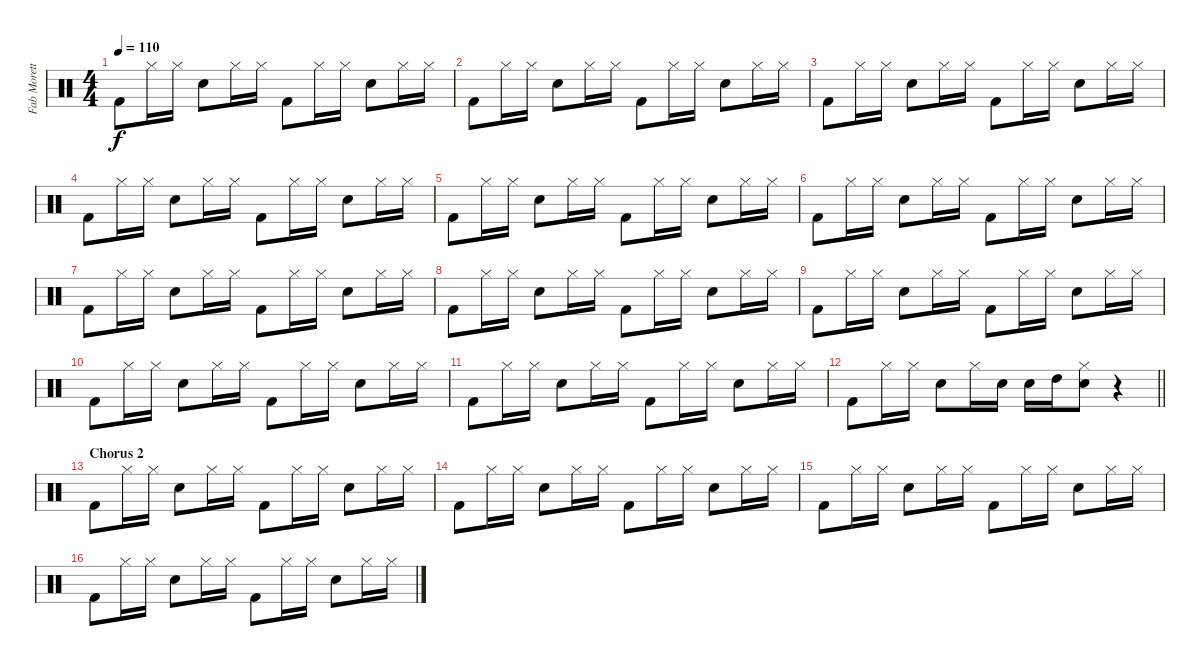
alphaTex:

\track ("Fab Moretti" "Fab Morett") {instrument percussion}
\staff {score}
\articulation defaults
\ts (4 4)
\tempo 110
\clef neutral
\ks c "Kick (hit) 2".8{dy f} "Hi-Hat (closed)".16 "Hi-Hat (closed)".16 "Electric Snare (hit)".8 "Hi-Hat (closed)".16 "Hi-Hat (closed)".16 "Kick (hit) 2".8 "Hi-Hat (closed)".16 "Hi-Hat (closed)".16 "Electric Snare (hit)".8 "Hi-Hat (closed)".16 "Hi-Hat (closed)".16
|
"Kick (hit) 2".8 "Hi-Hat (closed)".16 "Hi-Hat (closed)".16 "Electric Snare (hit)".8 "Hi-Hat (closed)".16 "Hi-Hat (closed)".16 "Kick (hit) 2".8 "Hi-Hat (closed)".16 "Hi-Hat (closed)".16 "Electric Snare (hit)".8 "Hi-Hat (closed)".16 "Hi-Hat (closed)".16 |
"Kick (hit) 2".8 "Hi-Hat (closed)".16 "Hi-Hat (closed)".16 "Electric Snare (hit)".8 "Hi-Hat (closed)".16 "Hi-Hat (closed)".16 "Kick (hit) 2".8 "Hi-Hat (closed)".16 "Hi-Hat (closed)".16 "Electric Snare (hit)".8 "Hi-Hat (closed)".16 "Hi-Hat (closed)".16 |
"Kick (hit) 2".8 "Hi-Hat (closed)".16 "Hi-Hat (closed)".16 "Electric Snare (hit)".8 "Hi-Hat (closed)".16 "Hi-Hat (closed)".16 "Kick (hit) 2".8 "Hi-Hat (closed)".16 "Hi-Hat (closed)".16 "Electric Snare (hit)".8 "Hi-Hat (closed)".16 "Hi-Hat (closed)".16 |
"Kick (hit) 2".8 "Hi-Hat (closed)".16 "Hi-Hat (closed)".16 "Electric Snare (hit)".8 "Hi-Hat (closed)".16 "Hi-Hat (closed)".16 "Kick (hit) 2".8 "Hi-Hat (closed)".16 "Hi-Hat (closed)".16 "Electric Snare (hit)".8 "Hi-Hat (closed)".16 "Hi-Hat (closed)".16 |
"Kick (hit) 2".8 "Hi-Hat (closed)".16 "Hi-Hat (closed)".16 "Electric Snare (hit)".8 "Hi-Hat (closed)".16 "Hi-Hat (closed)".16 "Kick (hit) 2".8 "Hi-Hat (closed)".16 "Hi-Hat (closed)".16 "Electric Snare (hit)".8 "Hi-Hat (closed)".16 "Hi-Hat (closed)".16 |
"Kick (hit) 2".8 "Hi-Hat (closed)".16 "Hi-Hat (closed)".16 "Electric Snare (hit)".8 "Hi-Hat (closed)".16 "Hi-Hat (closed)".16 "Kick (hit) 2".8 "Hi-Hat (closed)".16 "Hi-Hat (closed)".16 "Electric Snare (hit)".8 "Hi-Hat (closed)".16 "Hi-Hat (closed)".16 |
"Kick (hit) 2".8 "Hi-Hat (closed)".16 "Hi-Hat (closed)".16 "Electric Snare (hit)".8 "Hi-Hat (closed)".16 "Hi-Hat (closed)".16 "Kick (hit) 2".8 "Hi-Hat (closed)".16 "Hi-Hat (closed)".16 "Electric Snare (hit)".8 "Hi-Hat (closed)".16 "Hi-Hat (closed)".16 |
"Kick (hit) 2".8 "Hi-Hat (closed)".16 "Hi-Hat (closed)".16 "Electric Snare (hit)".8 "Hi-Hat (closed)".16 "Hi-Hat (closed)".16 "Kick (hit) 2".8 "Hi-Hat (closed)".16 "Hi-Hat (closed)".16 "Electric Snare (hit)".8 "Hi-Hat (closed)".16 "Hi-Hat (closed)".16 |
"Kick (hit) 2".8 "Hi-Hat (closed)".16 "Hi-Hat (closed)".16 "Electric Snare (hit)".8 "Hi-Hat (closed)".16 "Hi-Hat (closed)".16 "Kick (hit) 2".8 "Hi-Hat (closed)".16 "Hi-Hat (closed)".16 "Electric Snare (hit)".8 "Hi-Hat (closed)".16 "Hi-Hat (closed)".16 |
"Kick (hit) 2".8 "Hi-Hat (closed)".16 "Hi-Hat (closed)".16 "Electric Snare (hit)".8 "Hi-Hat (closed)".16 "Hi-Hat (closed)".16 "Kick (hit) 2".8 "Hi-Hat (closed)".16 "Hi-Hat (closed)".16 "Electric Snare (hit)".8 "Hi-Hat (closed)".16 "Hi-Hat (closed)".16 |
\barLineRight lightlight "Kick (hit) 2".8 "Hi-Hat (closed)".16 "Hi-Hat (closed)".16 "Electric Snare (hit)".8 "Hi-Hat (closed)".16 "Electric Snare (hit)".16 "Electric Snare (hit)".16 "High Tom (hit)".16
("Electric Snare (hit)" "Hi-Hat (closed)").8 r.4 |
\section ("" "Chorus 2")
"Kick (hit) 2".8 "Hi-Hat (closed)".16 "Hi-Hat (closed)".16 "Electric Snare (hit)".8 "Hi-Hat (closed)".16 "Hi-Hat (closed)".16 "Kick (hit) 2".8 "Hi-Hat (closed)".16 "Hi-Hat (closed)".16 "Electric Snare (hit)".8 "Hi-Hat (closed)".16 "Hi-Hat (closed)".16 |
"Kick (hit) 2".8 "Hi-Hat (closed)".16 "Hi-Hat (closed)".16 "Electric Snare (hit)".8 "Hi-Hat (closed)".16 "Hi-Hat (closed)".16 "Kick (hit) 2".8 "Hi-Hat (closed)".16 "Hi-Hat (closed)".16 "Electric Snare (hit)".8 "Hi-Hat (closed)".16 "Hi-Hat (closed)".16 |
"Kick (hit) 2".8 "Hi-Hat (closed)".16 "Hi-Hat (closed)".16 "Electric Snare (hit)".8 "Hi-Hat (closed)".16 "Hi-Hat (closed)".16 "Kick (hit) 2".8 "Hi-Hat (closed)".16 "Hi-Hat (closed)".16 "Electric Snare (hit)".8 "Hi-Hat (closed)".16 "Hi-Hat (closed)".16 |
"Kick (hit) 2".8 "Hi-Hat (closed)".16 "Hi-Hat (closed)".16 "Electric Snare (hit)".8 "Hi-Hat (closed)".16 "Hi-Hat (closed)".16 "Kick (hit) 2".8 "Hi-Hat (closed)".16 "Hi-Hat (closed)".16 "Electric Snare (hit)".8 "Hi-Hat (closed)".16 "Hi-Hat (closed)".16
